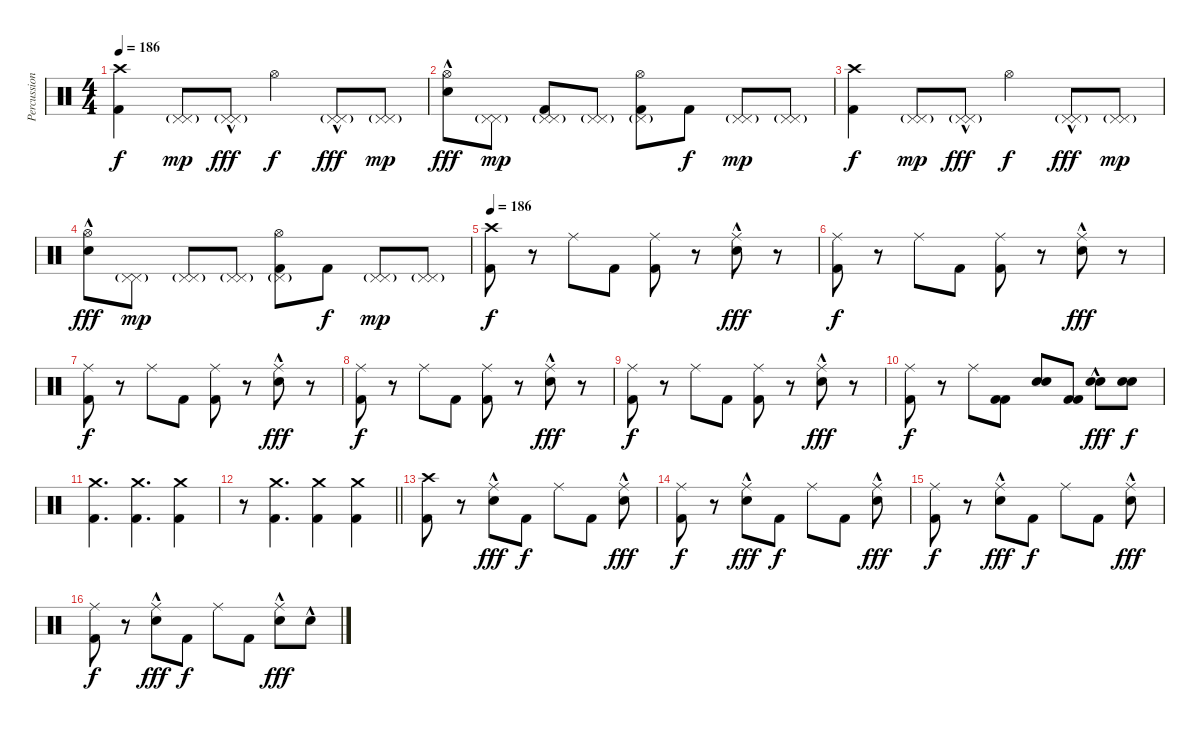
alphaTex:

\track ("Percussion" "Percussion") {instrument percussion}
\staff {score}
\articulation defaults
\ts (4 4)
\tempo 186
\clef neutral
\ks c
("Crash high (hit)" "Kick (hit) 2").4{dy f} ("Pedal Hi-Hat (hit)"{g} "Pedal Hi-Hat (hit)").8{dy mp} ("Pedal Hi-Hat (hit)"{g} "Pedal Hi-Hat (hit)"{hac}).8{dy fff} "Hi-Hat (open)".4{dy f} ("Pedal Hi-Hat (hit)"{g} "Pedal Hi-Hat (hit)"{hac}).8{dy fff} ("Pedal Hi-Hat (hit)"{g} "Pedal Hi-Hat (hit)").8{dy mp} |
("Hi-Hat (open)" "Electric Snare (hit)"{hac}).8{dy fff} ("Pedal Hi-Hat (hit)"{g} "Pedal Hi-Hat (hit)").8{dy mp} ("Pedal Hi-Hat (hit)"{g} "Pedal Hi-Hat (hit)" "Kick (hit) 2").8 ("Pedal Hi-Hat (hit)"{g} "Pedal Hi-Hat (hit)").8 ("Pedal Hi-Hat (hit)"{g} "Hi-Hat (open)" "Kick (hit) 2").8 "Kick (hit) 2".8{dy f} ("Pedal Hi-Hat (hit)"{g} "Pedal Hi-Hat (hit)").8{dy mp} ("Pedal Hi-Hat (hit)"{g} "Pedal Hi-Hat (hit)").8 |
("Crash high (hit)" "Kick (hit) 2").4{dy f} ("Pedal Hi-Hat (hit)"{g} "Pedal Hi-Hat (hit)").8{dy mp} ("Pedal Hi-Hat (hit)"{g} "Pedal Hi-Hat (hit)"{hac}).8{dy fff} "Hi-Hat (open)".4{dy f} ("Pedal Hi-Hat (hit)"{g} "Pedal Hi-Hat (hit)"{hac}).8{dy fff} ("Pedal Hi-Hat (hit)"{g} "Pedal Hi-Hat (hit)").8{dy mp} |
("Hi-Hat (open)" "Electric Snare (hit)"{hac}).8{dy fff} ("Pedal Hi-Hat (hit)"{g} "Pedal Hi-Hat (hit)").8{dy mp} ("Pedal Hi-Hat (hit)"{g} "Pedal Hi-Hat (hit)").8 ("Pedal Hi-Hat (hit)"{g} "Pedal Hi-Hat (hit)").8 ("Pedal Hi-Hat (hit)"{g} "Hi-Hat (open)" "Kick (hit) 2").8 "Kick (hit) 2".8{dy f} ("Pedal Hi-Hat (hit)"{g} "Pedal Hi-Hat (hit)").8{dy mp} ("Pedal Hi-Hat (hit)"{g} "Pedal Hi-Hat (hit)").8 |
\tempo 186
("Crash high (hit)" "Kick (hit) 2").8{dy f} r.8 "Ride (middle)".8 "Kick (hit) 2".8 ("Ride (middle)" "Kick (hit) 2").8 r.8 ("Ride (middle)" "Electric Snare (hit)"{hac}).8{dy fff} r.8 |
("Ride (middle)" "Kick (hit) 2").8{dy f} r.8 "Ride (middle)".8 "Kick (hit) 2".8 ("Ride (middle)" "Kick (hit) 2").8 r.8 ("Ride (middle)" "Electric Snare (hit)"{hac}).8{dy fff} r.8 |
("Ride (middle)" "Kick (hit) 2").8{dy f} r.8 "Ride (middle)".8 "Kick (hit) 2".8 ("Ride (middle)" "Kick (hit) 2").8 r.8 ("Ride (middle)" "Electric Snare (hit)"{hac}).8{dy fff} r.8 |
("Ride (middle)" "Kick (hit) 2").8{dy f} r.8 "Ride (middle)".8 "Kick (hit) 2".8 ("Ride (middle)" "Kick (hit) 2").8 r.8 ("Ride (middle)" "Electric Snare (hit)"{hac}).8{dy fff} r.8 |
("Ride (middle)" "Kick (hit) 2").8{dy f} r.8 "Ride (middle)".8 "Kick (hit) 2".8 ("Ride (middle)" "Kick (hit) 2").8 r.8 ("Ride (middle)" "Electric Snare (hit)"{hac}).8{dy fff} r.8 |
("Ride (middle)" "Kick (hit) 2").8{dy f} r.8 "Ride (middle)".8 ("Kick (hit) 2" "Kick (hit) 2").8 ("Electric Snare (hit)" "Electric Snare (hit)").8 ("Kick (hit) 2" "Kick (hit) 2").8 ("Electric Snare (hit)" "Electric Snare (hit)"{hac}).8{dy fff} ("Electric Snare (hit)" "Electric Snare (hit)").8{dy f} |
("Crash medium (hit)" "Kick (hit) 2").4{d} ("Crash medium (hit)" "Kick (hit) 2").4{d} ("Crash medium (hit)" "Kick (hit) 2").4 |
\barLineRight lightlight
r.8 ("Crash medium (hit)" "Kick (hit) 2").4{d} ("Crash medium (hit)" "Kick (hit) 2").4 ("Crash medium (hit)" "Kick (hit) 2").4 |
("Kick (hit) 2" "Crash high (hit)").8 r.8 ("Electric Snare (hit)"{hac} "Ride (middle)").8{dy fff} "Kick (hit) 2".8{dy f} "Ride (middle)".8 "Kick (hit) 2".8 ("Electric Snare (hit)"{hac} "Ride (middle)").8{dy fff} |
("Kick (hit) 2" "Ride (middle)").8{dy f} r.8 ("Electric Snare (hit)"{hac} "Ride (middle)").8{dy fff} "Kick (hit) 2".8{dy f} "Ride (middle)".8 "Kick (hit) 2".8 ("Electric Snare (hit)"{hac} "Ride (middle)").8{dy fff} |
("Kick (hit) 2" "Ride (middle)").8{dy f} r.8 ("Electric Snare (hit)"{hac} "Ride (middle)").8{dy fff} "Kick (hit) 2".8{dy f} "Ride (middle)".8 "Kick (hit) 2".8 ("Electric Snare (hit)"{hac} "Ride (middle)").8{dy fff} |
("Kick (hit) 2" "Ride (middle)").8{dy f} r.8 ("Electric Snare (hit)"{hac} "Ride (middle)").8{dy fff} "Kick (hit) 2".8{dy f} "Ride (middle)".8 "Kick (hit) 2".8 ("Electric Snare (hit)"{hac} "Ride (middle)").8{dy fff} "Electric Snare (hit)"{hac}.8
